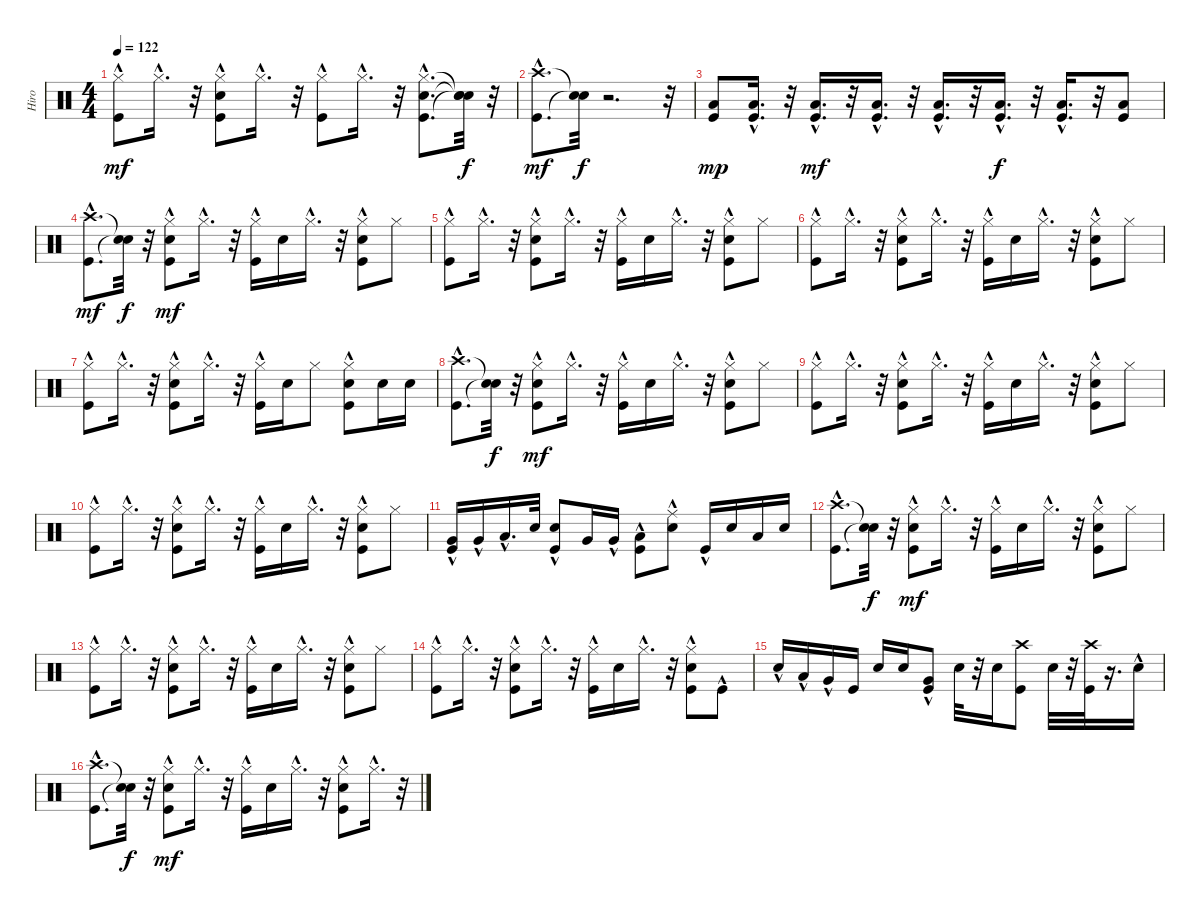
\track ("Hiro" "Hiro") {instrument percussion}
\staff {score}
\articulation defaults
\ts (4 4)
\tempo 122
\clef neutral
\ks c
("Hi-Hat (closed)" "Kick (hit)"{hac}).8{dy mf} "Hi-Hat (closed)"{hac}.16{d} r.32 ("Electric Snare (hit)"{hac} "Hi-Hat (closed)"{hac} "Kick (hit)"{hac}).8 "Hi-Hat (closed)"{hac}.16{d} r.32 ("Hi-Hat (closed)"{hac} "Kick (hit)"{hac}).8 "Hi-Hat (closed)"{hac}.16{d} r.32 ("Electric Snare (hit)"{hac} "Hi-Hat (closed)"{hac} "Kick (hit)"{hac}).8{d} ("Snare (hit)"{t} "Snare (hit)"{t} "Snare (hit)"{t}).32{dy f} r.32 |
("Kick (hit)"{hac} "Crash high (hit)"{hac}).8{d dy mf} ("Snare (hit)"{t} "Snare (hit)"{t}).32{dy f} r.2{d} r.32 |
("Kick (hit)" "Low Tom (hit)").8{dy mp} ("Kick (hit)"{hac} "Low Tom (hit)"{hac}).16{d} r.32 ("Kick (hit)"{hac} "Low Tom (hit)"{hac}).16{d dy mf} r.32 ("Kick (hit)"{hac} "Low Tom (hit)"{hac}).16{d} r.32 ("Kick (hit)"{hac} "Low Tom (hit)"{hac}).16{d} r.32 ("Kick (hit)"{hac} "Low Tom (hit)"{hac}).16{d dy f} r.32 ("Kick (hit)"{hac} "Low Tom (hit)"{hac}).16{d} r.32 ("Kick (hit)" "Low Tom (hit)").8 |
("Kick (hit)"{hac} "Crash high (hit)"{hac}).8{d dy mf} ("Snare (hit)"{t} "Snare (hit)"{t}).32{dy f} r.32 ("Kick (hit)"{hac} "Electric Snare (hit)"{hac} "Hi-Hat (closed)").8{dy mf} "Hi-Hat (closed)"{hac}.16{d} r.32 ("Kick (hit)"{hac} "Hi-Hat (closed)"{hac}).16 "Electric Snare (hit)".16 "Hi-Hat (closed)"{hac}.16{d} r.32 ("Electric Snare (hit)"{hac} "Hi-Hat (closed)"{hac} "Kick (hit)"{hac}).8 "Hi-Hat (closed)".8 |
("Kick (hit)"{hac} "Hi-Hat (closed)").8 "Hi-Hat (closed)"{hac}.16{d} r.32 ("Kick (hit)"{hac} "Electric Snare (hit)"{hac} "Hi-Hat (closed)"{hac}).8 "Hi-Hat (closed)"{hac}.16{d} r.32 ("Kick (hit)"{hac} "Hi-Hat (closed)"{hac}).16 "Electric Snare (hit)".16 "Hi-Hat (closed)"{hac}.16{d} r.32 ("Electric Snare (hit)"{hac} "Hi-Hat (closed)"{hac} "Kick (hit)"{hac}).8 "Hi-Hat (closed)".8 |
("Kick (hit)"{hac} "Hi-Hat (closed)").8 "Hi-Hat (closed)"{hac}.16{d} r.32 ("Kick (hit)"{hac} "Electric Snare (hit)"{hac} "Hi-Hat (closed)"{hac}).8 "Hi-Hat (closed)"{hac}.16{d} r.32 ("Kick (hit)"{hac} "Hi-Hat (closed)"{hac}).16 "Electric Snare (hit)".16 "Hi-Hat (closed)"{hac}.16{d} r.32 ("Electric Snare (hit)"{hac} "Hi-Hat (closed)"{hac} "Kick (hit)"{hac}).8 "Hi-Hat (closed)".8 |
("Kick (hit)"{hac} "Hi-Hat (closed)").8 "Hi-Hat (closed)"{hac}.16{d} r.32 ("Electric Snare (hit)"{hac} "Kick (hit)"{hac} "Hi-Hat (closed)"{hac}).8 "Hi-Hat (closed)"{hac}.16{d} r.32 ("Kick (hit)"{hac} "Hi-Hat (closed)"{hac}).16 "Electric Snare (hit)".16 "Hi-Hat (closed)".8 ("Electric Snare (hit)" "Kick (hit)"{hac} "Hi-Hat (closed)"{hac}).8 "Electric Snare (hit)".16 "Electric Snare (hit)".16 |
("Kick (hit)"{hac} "Crash high (hit)"{hac}).8{d} ("Snare (hit)"{t} "Snare (hit)"{t}).32{dy f} r.32 ("Kick (hit)"{hac} "Electric Snare (hit)"{hac} "Hi-Hat (closed)").8{dy mf} "Hi-Hat (closed)"{hac}.16{d} r.32 ("Kick (hit)"{hac} "Hi-Hat (closed)"{hac}).16 "Electric Snare (hit)".16 "Hi-Hat (closed)"{hac}.16{d} r.32 ("Electric Snare (hit)"{hac} "Hi-Hat (closed)"{hac} "Kick (hit)"{hac}).8 "Hi-Hat (closed)".8 |
("Kick (hit)"{hac} "Hi-Hat (closed)").8 "Hi-Hat (closed)"{hac}.16{d} r.32 ("Kick (hit)"{hac} "Electric Snare (hit)"{hac} "Hi-Hat (closed)"{hac}).8 "Hi-Hat (closed)"{hac}.16{d} r.32 ("Kick (hit)"{hac} "Hi-Hat (closed)"{hac}).16 "Electric Snare (hit)".16 "Hi-Hat (closed)"{hac}.16{d} r.32 ("Electric Snare (hit)"{hac} "Hi-Hat (closed)"{hac} "Kick (hit)"{hac}).8 "Hi-Hat (closed)".8 |
("Kick (hit)"{hac} "Hi-Hat (closed)").8 "Hi-Hat (closed)"{hac}.16{d} r.32 ("Kick (hit)"{hac} "Electric Snare (hit)"{hac} "Hi-Hat (closed)"{hac}).8 "Hi-Hat (closed)"{hac}.16{d} r.32 ("Kick (hit)"{hac} "Hi-Hat (closed)"{hac}).16 "Electric Snare (hit)".16 "Hi-Hat (closed)"{hac}.16{d} r.32 ("Electric Snare (hit)"{hac} "Hi-Hat (closed)"{hac} "Kick (hit)"{hac}).8 "Hi-Hat (closed)".8 |
("Very Low Tom (hit)" "Kick (hit)"{hac}).16 "Very Low Tom (hit)"{hac}.16 "Low Tom (hit)"{hac}.16{d} "Electric Snare (hit)".32 ("Electric Snare (hit)"{hac} "Kick (hit)"{hac}).8 "Very Low Tom (hit)".16 "Very Low Tom (hit)"{hac}.16 ("Low Tom (hit)"{hac} "Kick (hit)"{hac}).8 ("Ride (middle)"{hac} "Electric Snare (hit)").8 "Kick (hit)"{hac}.16 "Electric Snare (hit)".16 "Low Tom (hit)".16 "Electric Snare (hit)".16 |
("Kick (hit)"{hac} "Crash high (hit)"{hac}).8{d} ("Snare (hit)"{t} "Snare (hit)"{t}).32{dy f} r.32 ("Kick (hit)"{hac} "Electric Snare (hit)"{hac} "Hi-Hat (closed)").8{dy mf} "Hi-Hat (closed)"{hac}.16{d} r.32 ("Kick (hit)"{hac} "Hi-Hat (closed)"{hac}).16 "Electric Snare (hit)".16 "Hi-Hat (closed)"{hac}.16{d} r.32 ("Electric Snare (hit)"{hac} "Hi-Hat (closed)"{hac} "Kick (hit)"{hac}).8 "Hi-Hat (closed)".8 |
("Kick (hit)"{hac} "Hi-Hat (closed)").8 "Hi-Hat (closed)"{hac}.16{d} r.32 ("Kick (hit)"{hac} "Electric Snare (hit)"{hac} "Hi-Hat (closed)"{hac}).8 "Hi-Hat (closed)"{hac}.16{d} r.32 ("Kick (hit)"{hac} "Hi-Hat (closed)"{hac}).16 "Electric Snare (hit)".16 "Hi-Hat (closed)"{hac}.16{d} r.32 ("Electric Snare (hit)"{hac} "Hi-Hat (closed)"{hac} "Kick (hit)"{hac}).8 "Hi-Hat (closed)".8 |
("Kick (hit)"{hac} "Hi-Hat (closed)").8 "Hi-Hat (closed)"{hac}.16{d} r.32 ("Kick (hit)"{hac} "Electric Snare (hit)"{hac} "Hi-Hat (closed)"{hac}).8 "Hi-Hat (closed)"{hac}.16{d} r.32 ("Kick (hit)"{hac} "Hi-Hat (closed)"{hac}).16 "Electric Snare (hit)".16 "Hi-Hat (closed)"{hac}.16{d} r.32 ("Electric Snare (hit)"{hac} "Hi-Hat (closed)"{hac} "Kick (hit)").8 "Kick (hit)"{hac}.8 |
"Electric Snare (hit)"{hac}.16 "Low Tom (hit)"{hac}.16 "Very Low Tom (hit)"{hac}.16 "Kick (hit)".16 "Electric Snare (hit)".16 "Electric Snare (hit)".16 ("Very Low Tom (hit)"{hac} "Kick (hit)"{hac}).8 "Electric Snare (hit)".32 r.32 "Electric Snare (hit)".16 ("Crash high (hit)" "Kick (hit)").8 "Electric Snare (hit)".32 r.32 ("Crash high (hit)" "Kick (hit)").32 r.16{d} "Electric Snare (hit)"{hac}.16 |
("Kick (hit)"{hac} "Crash high (hit)"{hac}).8{d} ("Snare (hit)"{t} "Snare (hit)"{t}).32{dy f} r.32 ("Kick (hit)"{hac} "Electric Snare (hit)"{hac} "Hi-Hat (closed)").8{dy mf} "Hi-Hat (closed)"{hac}.16{d} r.32 ("Kick (hit)"{hac} "Hi-Hat (closed)"{hac}).16 "Electric Snare (hit)".16 "Hi-Hat (closed)"{hac}.16{d} r.32 ("Electric Snare (hit)"{hac} "Hi-Hat (closed)"{hac} "Kick (hit)"{hac}).8 "Hi-Hat (closed)"{hac}.16{d} r.32
